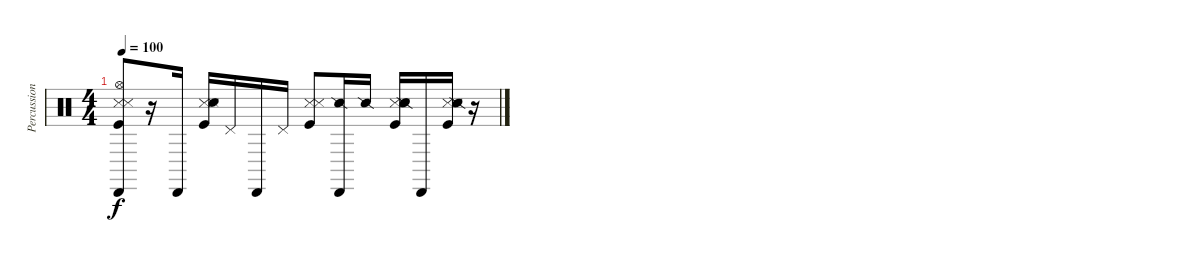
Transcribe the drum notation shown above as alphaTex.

\track ("Percussion" "Percussion") {instrument percussion}
\staff {score}
\articulation defaults
\ts (4 4)
\tempo 100
\clef neutral
\ks c
("Cabasa (hit)" "Metronome (hit)" "Hi-Hat (open)" "Kick (hit)" "Snare (side stick) 3").8{dy f} r.16 "Cabasa (hit)".16 ("Metronome (hit)" "Kick (hit)" "Snare (side stick) 3" "Snare (hit) 2").16 "Pedal Hi-Hat (hit)".16 "Cabasa (hit)".16 "Pedal Hi-Hat (hit)".16 ("Metronome (hit)" "Kick (hit)" "Snare (side stick) 3").8 ("Cabasa (hit)" "Snare (side stick) 2").16 "Snare (side stick) 2".16 ("Metronome (hit)" "Kick (hit)" "Snare (side stick) 3" "Snare (hit) 2" "Snare (side stick) 2").16 "Cabasa (hit)".16 ("Metronome (hit)" "Kick (hit)" "Snare (side stick) 3" "Snare (side stick) 2").16 r.16
